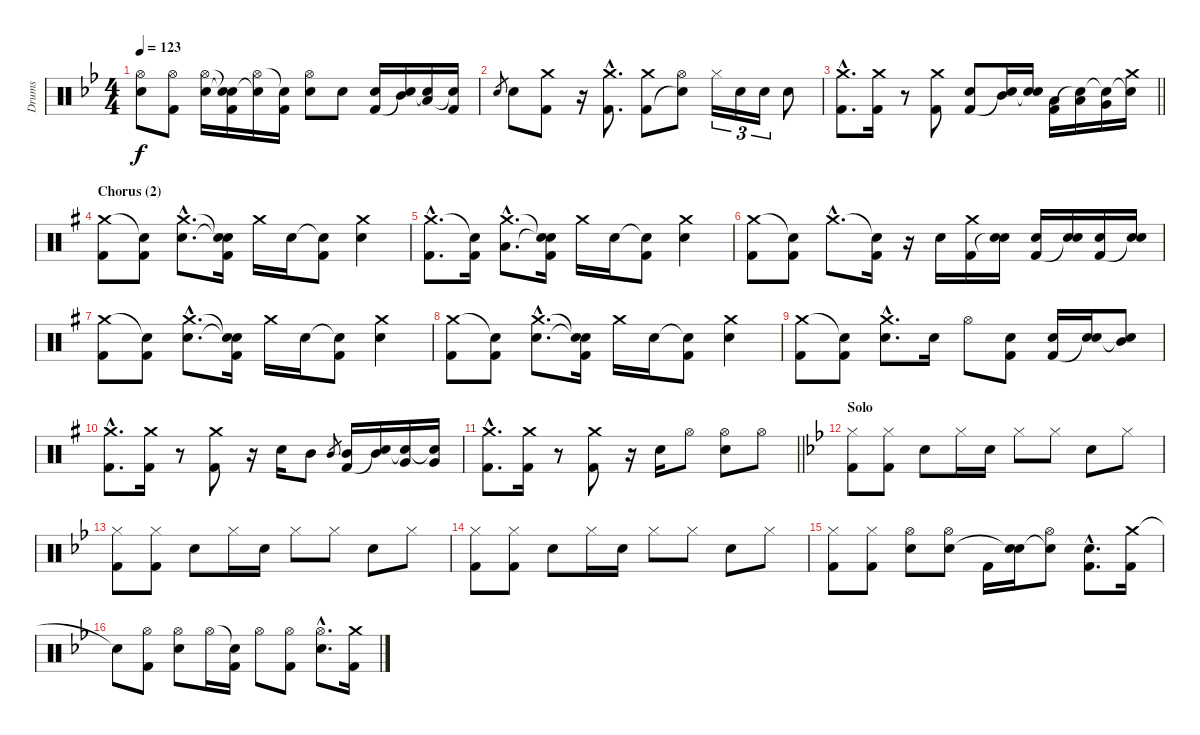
\track ("Drums" "Drums") {instrument percussion}
\staff {score}
\articulation defaults
\ts (4 4)
\tempo 123
\clef neutral
\ks gminor
("Hi-Hat (open)" "Electric Snare (hit)").8{dy f} ("Hi-Hat (open)" "Kick (hit) 2").8 ("Hi-Hat (open)" "Electric Snare (hit)").16 ("Snare (hit)"{t} "Snare (hit)"{t} "Kick (hit) 2").16 ("Hi-Hat (open)" "Snare (hit)"{t}).16 ("Snare (hit)"{t} "Kick (hit) 2").16 ("Hi-Hat (open)" "Electric Snare (hit)").8 "Electric Snare (hit)".8 ("Electric Snare (hit)" "Kick (hit) 2").16 ("Mid Tom (hit)" "Snare (hit)"{t}).16 ("Low Floor Tom (hit)" "Snare (hit)"{t}).16 ("Snare (hit)"{t} "Kick (hit) 2").16 |
"Electric Snare (hit)".8{gr} "Electric Snare (hit)".8 ("Crash medium (hit)" "Kick (hit) 2").8 r.16 ("Crash medium (hit)"{hac} "Kick (hit) 2"{hac}).8{d} ("Crash medium (hit)" "Kick (hit) 2").8 ("Hi-Hat (open)" "Snare (hit)"{t}).8 "Hi-Hat (closed)".16{tu (3 2)} "Electric Snare (hit)".16{tu (3 2)} "Electric Snare (hit)".16{tu (3 2)} "Electric Snare (hit)".8 |
\barLineRight lightlight
("Crash medium (hit)"{hac} "Kick (hit) 2"{hac}).8{d} ("Crash medium (hit)" "Kick (hit) 2").16 r.8 ("Crash medium (hit)" "Kick (hit) 2").8 ("Electric Snare (hit)" "Kick (hit) 2").8 ("Mid Tom (hit)" "Snare (hit)"{t}).16 ("Electric Snare (hit)" "Snare (hit)"{t}).16 ("Low Tom (hit)" "Kick (hit) 2").16 ("Low Tom (hit)" "Snare (hit)"{t}).16 ("Very Low Tom (hit)" "Snare (hit)"{t}).16 ("Crash medium (hit)" "Snare (hit)"{t}).16 |
\section ("" "Chorus (2)")
\ks eminor
("Crash medium (hit)" "Kick (hit) 2").8 ("Snare (hit)"{t} "Kick (hit) 2").8 ("Crash medium (hit)"{hac} "Electric Snare (hit)"{hac}).8{d} ("Snare (hit)"{t} "Snare (hit)"{t} "Kick (hit) 2").16 "Crash medium (hit)".16 "Electric Snare (hit)".16 ("Snare (hit)"{t} "Kick (hit) 2").8 ("Crash medium (hit)" "Electric Snare (hit)").4 |
("Crash medium (hit)"{hac} "Kick (hit) 2"{hac}).8{d} ("Snare (hit)"{t} "Kick (hit) 2").16 ("Crash medium (hit)"{hac} "Low Tom (hit)"{hac}).8{d} ("Snare (hit)"{t} "Snare (hit)"{t} "Kick (hit) 2").16 "Crash medium (hit)".16 "Electric Snare (hit)".16 ("Snare (hit)"{t} "Kick (hit) 2").8 ("Crash medium (hit)" "Electric Snare (hit)").4 |
("Crash medium (hit)" "Kick (hit) 2").8 ("Snare (hit)"{t} "Kick (hit) 2").8 "Crash medium (hit)"{hac}.8{d} ("Snare (hit)"{t} "Kick (hit) 2").16 r.16 "Electric Snare (hit)".16 ("Crash medium (hit)" "Kick (hit) 2").16 ("Electric Snare (hit)" "Snare (hit)"{t}).16 ("Electric Snare (hit)" "Kick (hit) 2").16 ("Electric Snare (hit)" "Snare (hit)"{t}).16 ("Electric Snare (hit)" "Kick (hit) 2").16 ("Electric Snare (hit)" "Snare (hit)"{t}).16 |
("Crash medium (hit)" "Kick (hit) 2").8 ("Snare (hit)"{t} "Kick (hit) 2").8 ("Crash medium (hit)"{hac} "Electric Snare (hit)"{hac}).8{d} ("Snare (hit)"{t} "Snare (hit)"{t} "Kick (hit) 2").16 "Crash medium (hit)".16 "Electric Snare (hit)".16 ("Snare (hit)"{t} "Kick (hit) 2").8 ("Crash medium (hit)" "Electric Snare (hit)").4 |
("Crash medium (hit)" "Kick (hit) 2").8 ("Snare (hit)"{t} "Kick (hit) 2").8 ("Crash medium (hit)"{hac} "Electric Snare (hit)"{hac}).8{d} ("Snare (hit)"{t} "Snare (hit)"{t} "Kick (hit) 2").16 "Crash medium (hit)".16 "Electric Snare (hit)".16 ("Snare (hit)"{t} "Kick (hit) 2").8 ("Crash medium (hit)" "Electric Snare (hit)").4 |
("Crash medium (hit)" "Kick (hit) 2").8 ("Snare (hit)"{t} "Kick (hit) 2").8 ("Crash medium (hit)"{hac} "Electric Snare (hit)"{hac}).8{d} "Electric Snare (hit)".16 "Hi-Hat (open)".8 ("Electric Snare (hit)" "Kick (hit) 2").8 ("Electric Snare (hit)" "Kick (hit) 2").16 ("Electric Snare (hit)" "Snare (hit)"{t}).16 ("Mid Tom (hit)" "Snare (hit)"{t}).8 |
("Crash medium (hit)"{hac} "Kick (hit) 2"{hac}).8{d} ("Crash medium (hit)" "Kick (hit) 2").16 r.8 ("Crash medium (hit)" "Kick (hit) 2").8 r.16 "Electric Snare (hit)".16 "Mid Tom (hit)".8 "Mid Tom (hit)".8{gr} ("Mid Tom (hit)" "Kick (hit) 2").16 ("Mid Tom (hit)" "Snare (hit)"{t}).16 ("Very Low Tom (hit)" "Snare (hit)"{t}).16 ("Very Low Tom (hit)" "Snare (hit)"{t}).16 |
\barLineRight lightlight
("Crash medium (hit)"{hac} "Kick (hit) 2"{hac}).8{d} ("Crash medium (hit)" "Kick (hit) 2").16 r.8 ("Crash medium (hit)" "Kick (hit) 2").8 r.16 "Electric Snare (hit)".16 "Hi-Hat (open)".8 ("Hi-Hat (open)" "Electric Snare (hit)").8 "Hi-Hat (open)".8 |
\section ("" "Solo")
\ks gminor
("Hi-Hat (closed)" "Kick (hit) 2").8 ("Hi-Hat (closed)" "Kick (hit) 2").8 "Electric Snare (hit)".8 "Hi-Hat (closed)".16 "Electric Snare (hit)".16 "Hi-Hat (closed)".8 "Hi-Hat (closed)".8 "Electric Snare (hit)".8 "Hi-Hat (closed)".8 |
("Hi-Hat (closed)" "Kick (hit) 2").8 ("Hi-Hat (closed)" "Kick (hit) 2").8 "Electric Snare (hit)".8 "Hi-Hat (closed)".16 "Electric Snare (hit)".16 "Hi-Hat (closed)".8 "Hi-Hat (closed)".8 "Electric Snare (hit)".8 "Hi-Hat (closed)".8 |
("Hi-Hat (closed)" "Kick (hit) 2").8 ("Hi-Hat (closed)" "Kick (hit) 2").8 "Electric Snare (hit)".8 "Hi-Hat (closed)".16 "Electric Snare (hit)".16 "Hi-Hat (closed)".8 "Hi-Hat (closed)".8 "Electric Snare (hit)".8 "Hi-Hat (closed)".8 |
("Hi-Hat (closed)" "Kick (hit) 2").8 ("Hi-Hat (closed)" "Kick (hit) 2").8 ("Hi-Hat (open)" "Electric Snare (hit)").8 ("Hi-Hat (open)" "Electric Snare (hit)").8 "Kick (hit) 2".16 ("Electric Snare (hit)" "Snare (hit)"{t}).16 ("Hi-Hat (open)" "Snare (hit)"{t}).8 ("Electric Snare (hit)"{hac} "Kick (hit) 2"{hac}).8{d} ("Crash medium (hit)" "Kick (hit) 2").16 |
"Snare (hit)"{t}.8 ("Hi-Hat (open)" "Kick (hit) 2").8 ("Hi-Hat (open)" "Electric Snare (hit)").8 "Hi-Hat (open)".16 ("Snare (hit)"{t} "Kick (hit) 2").16 "Hi-Hat (open)".8 ("Hi-Hat (open)" "Kick (hit) 2").8 ("Hi-Hat (open)"{hac} "Electric Snare (hit)"{hac}).8{d} ("Crash medium (hit)" "Kick (hit) 2").16
